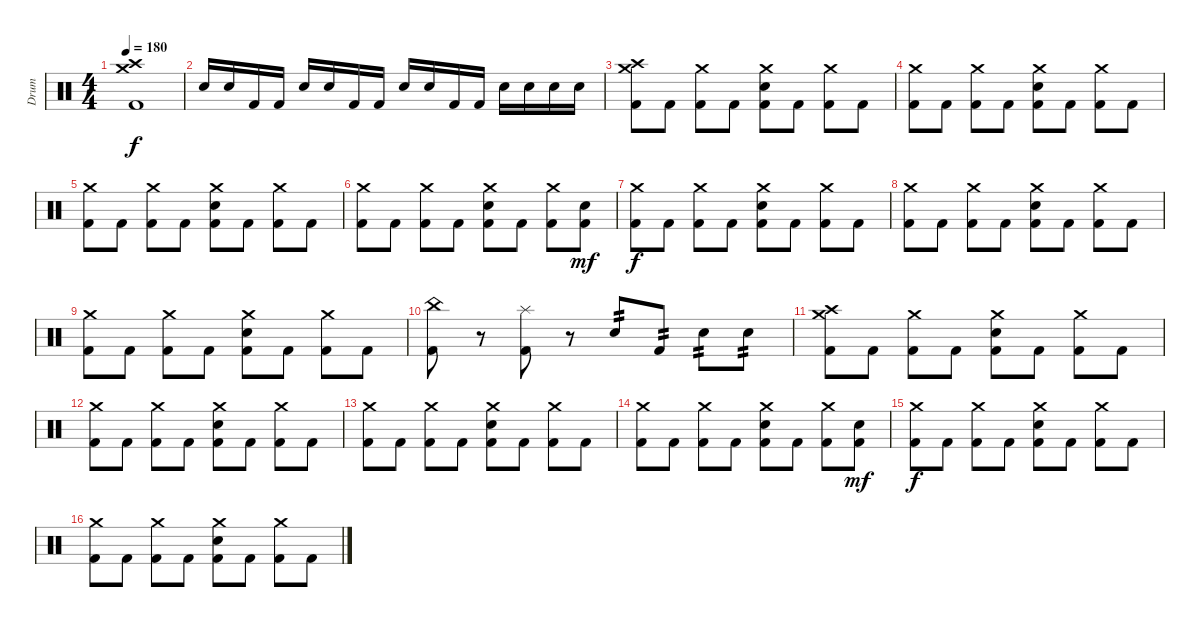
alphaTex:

\track ("Drum" "Drum") {instrument percussion}
\staff {score}
\articulation defaults
\ts (4 4)
\tempo 180
\clef neutral
\ks c
("Crash medium (hit)" "Crash high (hit)" "Kick (hit) 2").1{dy f} |
"Snare (hit) 2".16 "Snare (hit) 2".16 "Kick (hit) 2".16 "Kick (hit) 2".16 "Snare (hit) 2".16 "Snare (hit) 2".16 "Kick (hit) 2".16 "Kick (hit) 2".16 "Snare (hit) 2".16 "Snare (hit) 2".16 "Kick (hit) 2".16 "Kick (hit) 2".16 "Snare (hit) 2".16 "Snare (hit) 2".16 "Snare (hit) 2".16 "Snare (hit) 2".16 |
("Crash medium (hit)" "Crash high (hit)" "Kick (hit) 2").8 "Kick (hit) 2".8 ("Crash medium (hit)" "Kick (hit) 2").8 "Kick (hit) 2".8 ("Crash medium (hit)" "Snare (hit) 2" "Kick (hit) 2").8 "Kick (hit) 2".8 ("Crash medium (hit)" "Kick (hit) 2").8 "Kick (hit) 2".8 |
("Crash medium (hit)" "Kick (hit) 2").8 "Kick (hit) 2".8 ("Crash medium (hit)" "Kick (hit) 2").8 "Kick (hit) 2".8 ("Crash medium (hit)" "Snare (hit) 2" "Kick (hit) 2").8 "Kick (hit) 2".8 ("Crash medium (hit)" "Kick (hit) 2").8 "Kick (hit) 2".8 |
("Crash medium (hit)" "Kick (hit) 2").8 "Kick (hit) 2".8 ("Crash medium (hit)" "Kick (hit) 2").8 "Kick (hit) 2".8 ("Crash medium (hit)" "Snare (hit) 2" "Kick (hit) 2").8 "Kick (hit) 2".8 ("Crash medium (hit)" "Kick (hit) 2").8 "Kick (hit) 2".8 |
("Crash medium (hit)" "Kick (hit) 2").8 "Kick (hit) 2".8 ("Crash medium (hit)" "Kick (hit) 2").8 "Kick (hit) 2".8 ("Crash medium (hit)" "Snare (hit) 2" "Kick (hit) 2").8 "Kick (hit) 2".8 ("Crash medium (hit)" "Kick (hit) 2").8 ("Snare (hit) 2" "Kick (hit) 2").8{dy mf} |
("Crash medium (hit)" "Kick (hit) 2").8{dy f} "Kick (hit) 2".8 ("Crash medium (hit)" "Kick (hit) 2").8 "Kick (hit) 2".8 ("Crash medium (hit)" "Snare (hit) 2" "Kick (hit) 2").8 "Kick (hit) 2".8 ("Crash medium (hit)" "Kick (hit) 2").8 "Kick (hit) 2".8 |
("Crash medium (hit)" "Kick (hit) 2").8 "Kick (hit) 2".8 ("Crash medium (hit)" "Kick (hit) 2").8 "Kick (hit) 2".8 ("Crash medium (hit)" "Snare (hit) 2" "Kick (hit) 2").8 "Kick (hit) 2".8 ("Crash medium (hit)" "Kick (hit) 2").8 "Kick (hit) 2".8 |
("Crash medium (hit)" "Kick (hit) 2").8 "Kick (hit) 2".8 ("Crash medium (hit)" "Kick (hit) 2").8 "Kick (hit) 2".8 ("Crash medium (hit)" "Snare (hit) 2" "Kick (hit) 2").8 "Kick (hit) 2".8 ("Crash medium (hit)" "Kick (hit) 2").8 "Kick (hit) 2".8 |
("China (hit)" "Kick (hit) 2").8 r.8 ("Splash (hit)" "Kick (hit) 2").8 r.8 "Snare (hit) 2".8{tp 2} "Kick (hit) 2".8{tp 2} "Snare (hit) 2".8{tp 2} "Snare (hit) 2".8{tp 2} |
("Crash medium (hit)" "Crash high (hit)" "Kick (hit) 2").8 "Kick (hit) 2".8 ("Crash medium (hit)" "Kick (hit) 2").8 "Kick (hit) 2".8 ("Crash medium (hit)" "Snare (hit) 2" "Kick (hit) 2").8 "Kick (hit) 2".8 ("Crash medium (hit)" "Kick (hit) 2").8 "Kick (hit) 2".8 |
("Crash medium (hit)" "Kick (hit) 2").8 "Kick (hit) 2".8 ("Crash medium (hit)" "Kick (hit) 2").8 "Kick (hit) 2".8 ("Crash medium (hit)" "Snare (hit) 2" "Kick (hit) 2").8 "Kick (hit) 2".8 ("Crash medium (hit)" "Kick (hit) 2").8 "Kick (hit) 2".8 |
("Crash medium (hit)" "Kick (hit) 2").8 "Kick (hit) 2".8 ("Crash medium (hit)" "Kick (hit) 2").8 "Kick (hit) 2".8 ("Crash medium (hit)" "Snare (hit) 2" "Kick (hit) 2").8 "Kick (hit) 2".8 ("Crash medium (hit)" "Kick (hit) 2").8 "Kick (hit) 2".8 |
("Crash medium (hit)" "Kick (hit) 2").8 "Kick (hit) 2".8 ("Crash medium (hit)" "Kick (hit) 2").8 "Kick (hit) 2".8 ("Crash medium (hit)" "Snare (hit) 2" "Kick (hit) 2").8 "Kick (hit) 2".8 ("Crash medium (hit)" "Kick (hit) 2").8 ("Snare (hit) 2" "Kick (hit) 2").8{dy mf} |
("Crash medium (hit)" "Kick (hit) 2").8{dy f} "Kick (hit) 2".8 ("Crash medium (hit)" "Kick (hit) 2").8 "Kick (hit) 2".8 ("Crash medium (hit)" "Snare (hit) 2" "Kick (hit) 2").8 "Kick (hit) 2".8 ("Crash medium (hit)" "Kick (hit) 2").8 "Kick (hit) 2".8 |
("Crash medium (hit)" "Kick (hit) 2").8 "Kick (hit) 2".8 ("Crash medium (hit)" "Kick (hit) 2").8 "Kick (hit) 2".8 ("Crash medium (hit)" "Snare (hit) 2" "Kick (hit) 2").8 "Kick (hit) 2".8 ("Crash medium (hit)" "Kick (hit) 2").8 "Kick (hit) 2".8
